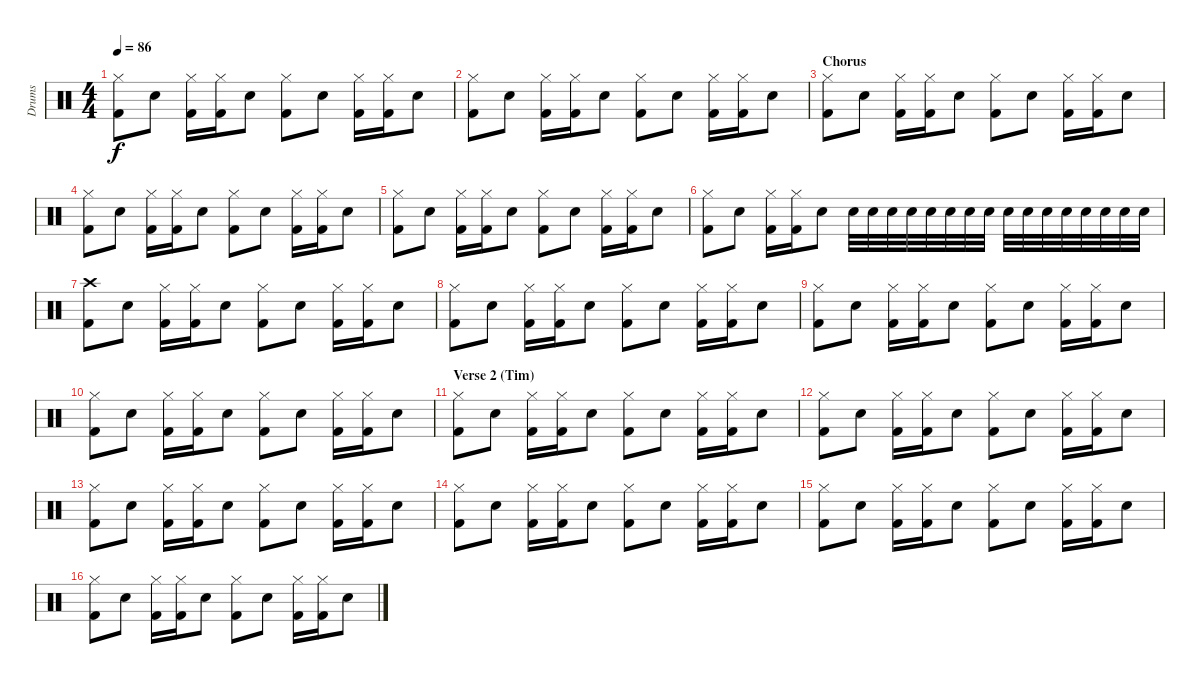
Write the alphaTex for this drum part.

\track ("Drums" "Drums") {instrument percussion}
\staff {score}
\articulation defaults
\ts (4 4)
\tempo 86
\clef neutral
\ks c
("Hi-Hat (closed)" "Kick (hit) 2").8{dy f} "Electric Snare (hit)".8 ("Hi-Hat (closed)" "Kick (hit) 2").16 ("Hi-Hat (closed)" "Kick (hit) 2").16 "Electric Snare (hit)".8 ("Hi-Hat (closed)" "Kick (hit) 2").8 "Electric Snare (hit)".8 ("Hi-Hat (closed)" "Kick (hit) 2").16 ("Hi-Hat (closed)" "Kick (hit) 2").16 "Electric Snare (hit)".8 |
("Hi-Hat (closed)" "Kick (hit) 2").8 "Electric Snare (hit)".8 ("Hi-Hat (closed)" "Kick (hit) 2").16 ("Hi-Hat (closed)" "Kick (hit) 2").16 "Electric Snare (hit)".8 ("Hi-Hat (closed)" "Kick (hit) 2").8 "Electric Snare (hit)".8 ("Hi-Hat (closed)" "Kick (hit) 2").16 ("Hi-Hat (closed)" "Kick (hit) 2").16 "Electric Snare (hit)".8 |
\section ("" "Chorus")
("Hi-Hat (closed)" "Kick (hit) 2").8 "Electric Snare (hit)".8 ("Hi-Hat (closed)" "Kick (hit) 2").16 ("Hi-Hat (closed)" "Kick (hit) 2").16 "Electric Snare (hit)".8 ("Hi-Hat (closed)" "Kick (hit) 2").8 "Electric Snare (hit)".8 ("Hi-Hat (closed)" "Kick (hit) 2").16 ("Hi-Hat (closed)" "Kick (hit) 2").16 "Electric Snare (hit)".8 |
("Hi-Hat (closed)" "Kick (hit) 2").8 "Electric Snare (hit)".8 ("Hi-Hat (closed)" "Kick (hit) 2").16 ("Hi-Hat (closed)" "Kick (hit) 2").16 "Electric Snare (hit)".8 ("Hi-Hat (closed)" "Kick (hit) 2").8 "Electric Snare (hit)".8 ("Hi-Hat (closed)" "Kick (hit) 2").16 ("Hi-Hat (closed)" "Kick (hit) 2").16 "Electric Snare (hit)".8 |
("Hi-Hat (closed)" "Kick (hit) 2").8 "Electric Snare (hit)".8 ("Hi-Hat (closed)" "Kick (hit) 2").16 ("Hi-Hat (closed)" "Kick (hit) 2").16 "Electric Snare (hit)".8 ("Hi-Hat (closed)" "Kick (hit) 2").8 "Electric Snare (hit)".8 ("Hi-Hat (closed)" "Kick (hit) 2").16 ("Hi-Hat (closed)" "Kick (hit) 2").16 "Electric Snare (hit)".8 |
("Hi-Hat (closed)" "Kick (hit) 2").8 "Electric Snare (hit)".8 ("Hi-Hat (closed)" "Kick (hit) 2").16 ("Hi-Hat (closed)" "Kick (hit) 2").16 "Electric Snare (hit)".8 "Electric Snare (hit)".32 "Electric Snare (hit)".32 "Electric Snare (hit)".32 "Electric Snare (hit)".32 "Electric Snare (hit)".32 "Electric Snare (hit)".32 "Electric Snare (hit)".32 "Electric Snare (hit)".32 "Electric Snare (hit)".32 "Electric Snare (hit)".32 "Electric Snare (hit)".32 "Electric Snare (hit)".32 "Electric Snare (hit)".32 "Electric Snare (hit)".32 "Electric Snare (hit)".32 "Electric Snare (hit)".32 |
("Crash high (hit)" "Kick (hit) 2").8 "Electric Snare (hit)".8 ("Hi-Hat (closed)" "Kick (hit) 2").16 ("Hi-Hat (closed)" "Kick (hit) 2").16 "Electric Snare (hit)".8 ("Hi-Hat (closed)" "Kick (hit) 2").8 "Electric Snare (hit)".8 ("Hi-Hat (closed)" "Kick (hit) 2").16 ("Hi-Hat (closed)" "Kick (hit) 2").16 "Electric Snare (hit)".8 |
("Hi-Hat (closed)" "Kick (hit) 2").8 "Electric Snare (hit)".8 ("Hi-Hat (closed)" "Kick (hit) 2").16 ("Hi-Hat (closed)" "Kick (hit) 2").16 "Electric Snare (hit)".8 ("Hi-Hat (closed)" "Kick (hit) 2").8 "Electric Snare (hit)".8 ("Hi-Hat (closed)" "Kick (hit) 2").16 ("Hi-Hat (closed)" "Kick (hit) 2").16 "Electric Snare (hit)".8 |
("Hi-Hat (closed)" "Kick (hit) 2").8 "Electric Snare (hit)".8 ("Hi-Hat (closed)" "Kick (hit) 2").16 ("Hi-Hat (closed)" "Kick (hit) 2").16 "Electric Snare (hit)".8 ("Hi-Hat (closed)" "Kick (hit) 2").8 "Electric Snare (hit)".8 ("Hi-Hat (closed)" "Kick (hit) 2").16 ("Hi-Hat (closed)" "Kick (hit) 2").16 "Electric Snare (hit)".8 |
("Hi-Hat (closed)" "Kick (hit) 2").8 "Electric Snare (hit)".8 ("Hi-Hat (closed)" "Kick (hit) 2").16 ("Hi-Hat (closed)" "Kick (hit) 2").16 "Electric Snare (hit)".8 ("Hi-Hat (closed)" "Kick (hit) 2").8 "Electric Snare (hit)".8 ("Hi-Hat (closed)" "Kick (hit) 2").16 ("Hi-Hat (closed)" "Kick (hit) 2").16 "Electric Snare (hit)".8 |
\section ("" "Verse 2 (Tim)")
("Hi-Hat (closed)" "Kick (hit) 2").8 "Electric Snare (hit)".8 ("Hi-Hat (closed)" "Kick (hit) 2").16 ("Hi-Hat (closed)" "Kick (hit) 2").16 "Electric Snare (hit)".8 ("Hi-Hat (closed)" "Kick (hit) 2").8 "Electric Snare (hit)".8 ("Hi-Hat (closed)" "Kick (hit) 2").16 ("Hi-Hat (closed)" "Kick (hit) 2").16 "Electric Snare (hit)".8 |
("Hi-Hat (closed)" "Kick (hit) 2").8 "Electric Snare (hit)".8 ("Hi-Hat (closed)" "Kick (hit) 2").16 ("Hi-Hat (closed)" "Kick (hit) 2").16 "Electric Snare (hit)".8 ("Hi-Hat (closed)" "Kick (hit) 2").8 "Electric Snare (hit)".8 ("Hi-Hat (closed)" "Kick (hit) 2").16 ("Hi-Hat (closed)" "Kick (hit) 2").16 "Electric Snare (hit)".8 |
("Hi-Hat (closed)" "Kick (hit) 2").8 "Electric Snare (hit)".8 ("Hi-Hat (closed)" "Kick (hit) 2").16 ("Hi-Hat (closed)" "Kick (hit) 2").16 "Electric Snare (hit)".8 ("Hi-Hat (closed)" "Kick (hit) 2").8 "Electric Snare (hit)".8 ("Hi-Hat (closed)" "Kick (hit) 2").16 ("Hi-Hat (closed)" "Kick (hit) 2").16 "Electric Snare (hit)".8 |
("Hi-Hat (closed)" "Kick (hit) 2").8 "Electric Snare (hit)".8 ("Hi-Hat (closed)" "Kick (hit) 2").16 ("Hi-Hat (closed)" "Kick (hit) 2").16 "Electric Snare (hit)".8 ("Hi-Hat (closed)" "Kick (hit) 2").8 "Electric Snare (hit)".8 ("Hi-Hat (closed)" "Kick (hit) 2").16 ("Hi-Hat (closed)" "Kick (hit) 2").16 "Electric Snare (hit)".8 |
("Hi-Hat (closed)" "Kick (hit) 2").8 "Electric Snare (hit)".8 ("Hi-Hat (closed)" "Kick (hit) 2").16 ("Hi-Hat (closed)" "Kick (hit) 2").16 "Electric Snare (hit)".8 ("Hi-Hat (closed)" "Kick (hit) 2").8 "Electric Snare (hit)".8 ("Hi-Hat (closed)" "Kick (hit) 2").16 ("Hi-Hat (closed)" "Kick (hit) 2").16 "Electric Snare (hit)".8 |
("Hi-Hat (closed)" "Kick (hit) 2").8 "Electric Snare (hit)".8 ("Hi-Hat (closed)" "Kick (hit) 2").16 ("Hi-Hat (closed)" "Kick (hit) 2").16 "Electric Snare (hit)".8 ("Hi-Hat (closed)" "Kick (hit) 2").8 "Electric Snare (hit)".8 ("Hi-Hat (closed)" "Kick (hit) 2").16 ("Hi-Hat (closed)" "Kick (hit) 2").16 "Electric Snare (hit)".8
